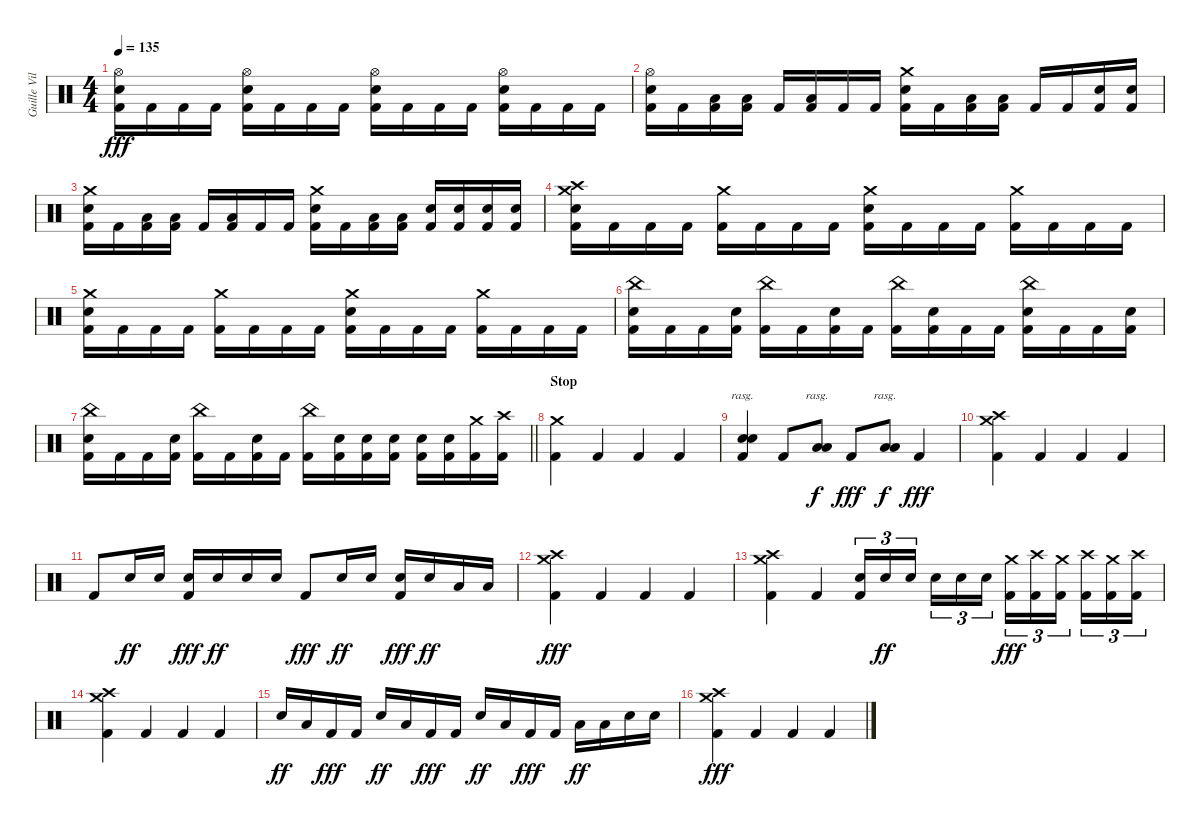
\track ("Guille Vila" "Guille Vil") {instrument percussion}
\staff {score}
\articulation defaults
\ts (4 4)
\tempo 135
\clef neutral
\ks c
("Hi-Hat (open)" "Snare (hit) 2" "Kick (hit) 2").16{dy fff} "Kick (hit) 2".16 "Kick (hit) 2".16 "Kick (hit) 2".16 ("Hi-Hat (open)" "Snare (hit) 2" "Kick (hit) 2").16 "Kick (hit) 2".16 "Kick (hit) 2".16 "Kick (hit) 2".16 ("Hi-Hat (open)" "Snare (hit) 2" "Kick (hit) 2").16 "Kick (hit) 2".16 "Kick (hit) 2".16 "Kick (hit) 2".16 ("Hi-Hat (open)" "Snare (hit) 2" "Kick (hit) 2").16 "Kick (hit) 2".16 "Kick (hit) 2".16 "Kick (hit) 2".16 |
("Hi-Hat (open)" "Snare (hit) 2" "Kick (hit) 2").16 "Kick (hit) 2".16 ("Low Tom (hit)" "Kick (hit) 2").16 ("Low Tom (hit)" "Kick (hit) 2").16 "Kick (hit) 2".16 ("Low Tom (hit)" "Kick (hit) 2").16 "Kick (hit) 2".16 "Kick (hit) 2".16 ("Crash medium (hit)" "Snare (hit) 2" "Kick (hit) 2").16 "Kick (hit) 2".16 ("Low Floor Tom (hit)" "Kick (hit) 2").16 ("Low Tom (hit)" "Kick (hit) 2").16 "Kick (hit) 2".16 "Kick (hit) 2".16 ("Snare (hit) 2" "Kick (hit) 2").16 ("Snare (hit) 2" "Kick (hit) 2").16 |
("Crash medium (hit)" "Snare (hit) 2" "Kick (hit) 2").16 "Kick (hit) 2".16 ("Low Tom (hit)" "Kick (hit) 2").16 ("Low Tom (hit)" "Kick (hit) 2").16 "Kick (hit) 2".16 ("Low Tom (hit)" "Kick (hit) 2").16 "Kick (hit) 2".16 "Kick (hit) 2".16 ("Crash medium (hit)" "Snare (hit) 2" "Kick (hit) 2").16 "Kick (hit) 2".16 ("Low Floor Tom (hit)" "Kick (hit) 2").16 ("Low Tom (hit)" "Kick (hit) 2").16 ("Snare (hit) 2" "Kick (hit) 2").16 ("Snare (hit) 2" "Kick (hit) 2").16 ("Snare (hit) 2" "Kick (hit) 2").16 ("Snare (hit) 2" "Kick (hit) 2").16 |
("Crash medium (hit)" "Crash high (hit)" "Snare (hit) 2" "Kick (hit) 2").16 "Kick (hit) 2".16 "Kick (hit) 2".16 "Kick (hit) 2".16 ("Crash medium (hit)" "Kick (hit) 2").16 "Kick (hit) 2".16 "Kick (hit) 2".16 "Kick (hit) 2".16 ("Crash medium (hit)" "Snare (hit) 2" "Kick (hit) 2").16 "Kick (hit) 2".16 "Kick (hit) 2".16 "Kick (hit) 2".16 ("Crash medium (hit)" "Kick (hit) 2").16 "Kick (hit) 2".16 "Kick (hit) 2".16 "Kick (hit) 2".16 |
("Crash medium (hit)" "Snare (hit) 2" "Kick (hit) 2").16 "Kick (hit) 2".16 "Kick (hit) 2".16 "Kick (hit) 2".16 ("Crash medium (hit)" "Kick (hit) 2").16 "Kick (hit) 2".16 "Kick (hit) 2".16 "Kick (hit) 2".16 ("Crash medium (hit)" "Snare (hit) 2" "Kick (hit) 2").16 "Kick (hit) 2".16 "Kick (hit) 2".16 "Kick (hit) 2".16 ("Crash medium (hit)" "Kick (hit) 2").16 "Kick (hit) 2".16 "Kick (hit) 2".16 "Kick (hit) 2".16 |
("China (hit)" "Snare (hit) 2" "Kick (hit) 2").16 "Kick (hit) 2".16 "Kick (hit) 2".16 ("Snare (hit) 2" "Kick (hit) 2").16 ("China (hit)" "Kick (hit) 2").16 "Kick (hit) 2".16 ("Snare (hit) 2" "Kick (hit) 2").16 "Kick (hit) 2".16 ("China (hit)" "Kick (hit) 2").16 ("Snare (hit) 2" "Kick (hit) 2").16 "Kick (hit) 2".16 "Kick (hit) 2".16 ("China (hit)" "Snare (hit) 2" "Kick (hit) 2").16 "Kick (hit) 2".16 "Kick (hit) 2".16 ("Snare (hit) 2" "Kick (hit) 2").16 |
\barLineRight lightlight
("China (hit)" "Snare (hit) 2" "Kick (hit) 2").16 "Kick (hit) 2".16 "Kick (hit) 2".16 ("Snare (hit) 2" "Kick (hit) 2").16 ("China (hit)" "Kick (hit) 2").16 "Kick (hit) 2".16 ("Snare (hit) 2" "Kick (hit) 2").16 "Kick (hit) 2".16 ("China (hit)" "Kick (hit) 2").16 ("Snare (hit) 2" "Kick (hit) 2").16 ("Snare (hit) 2" "Kick (hit) 2").16 ("Snare (hit) 2" "Kick (hit) 2").16 ("Snare (hit) 2" "Kick (hit) 2").16 ("Snare (hit) 2" "Kick (hit) 2").16 ("Crash medium (hit)" "Kick (hit) 2").16 ("Crash high (hit)" "Kick (hit) 2").16 |
\section ("" "Stop")
("Crash medium (hit)" "Kick (hit) 2").4 "Kick (hit) 2".4 "Kick (hit) 2".4 "Kick (hit) 2".4 |
("Snare (hit) 2" "Snare (hit) 2" "Kick (hit) 2").4{bd 240 rasg ii} "Kick (hit) 2".8 ("Low Tom (hit)" "Low Tom (hit)").8{bd 240 rasg ii dy f} "Kick (hit) 2".8{dy fff} ("Low Floor Tom (hit)" "Low Floor Tom (hit)").8{bd 240 rasg ii dy f} "Kick (hit) 2".4{dy fff} |
("Crash medium (hit)" "Crash high (hit)" "Kick (hit) 2").4 "Kick (hit) 2".4 "Kick (hit) 2".4 "Kick (hit) 2".4 |
"Kick (hit) 2".8 "Snare (hit) 2".16{dy ff} "Snare (hit) 2".16 ("Snare (hit) 2" "Kick (hit) 2").16{dy fff} "Snare (hit) 2".16{dy ff} "Snare (hit) 2".16 "Snare (hit) 2".16 "Kick (hit) 2".8{dy fff} "Snare (hit) 2".16{dy ff} "Snare (hit) 2".16 ("Snare (hit) 2" "Kick (hit) 2").16{dy fff} "Snare (hit) 2".16{dy ff} "Low Tom (hit)".16 "Low Tom (hit)".16 |
("Crash medium (hit)" "Crash high (hit)" "Kick (hit) 2").4{dy fff} "Kick (hit) 2".4 "Kick (hit) 2".4 "Kick (hit) 2".4 |
("Crash medium (hit)" "Crash high (hit)" "Kick (hit) 2").4 "Kick (hit) 2".4 ("Snare (hit) 2" "Kick (hit) 2").16{tu (3 2)} "Snare (hit) 2".16{tu (3 2) dy ff} "Snare (hit) 2".16{tu (3 2) beam splitsecondary} "Snare (hit) 2".16{tu (3 2)} "Snare (hit) 2".16{tu (3 2)} "Snare (hit) 2".16{tu (3 2)} ("Crash medium (hit)" "Kick (hit) 2").16{tu (3 2) dy fff} ("Crash high (hit)" "Kick (hit) 2").16{tu (3 2)} ("Crash medium (hit)" "Kick (hit) 2").16{tu (3 2) beam splitsecondary} ("Crash high (hit)" "Kick (hit) 2").16{tu (3 2)} ("Crash medium (hit)" "Kick (hit) 2").16{tu (3 2)} ("Crash high (hit)" "Kick (hit) 2").16{tu (3 2)} |
("Crash medium (hit)" "Crash high (hit)" "Kick (hit) 2").4 "Kick (hit) 2".4 "Kick (hit) 2".4 "Kick (hit) 2".4 |
"Snare (hit) 2".16{dy ff} "Low Tom (hit)".16 "Kick (hit) 2".16{dy fff} "Kick (hit) 2".16 "Snare (hit) 2".16{dy ff} "Low Tom (hit)".16 "Kick (hit) 2".16{dy fff} "Kick (hit) 2".16 "Snare (hit) 2".16{dy ff} "Low Tom (hit)".16 "Kick (hit) 2".16{dy fff} "Kick (hit) 2".16 "Low Tom (hit)".16{dy ff} "Low Tom (hit)".16 "Snare (hit) 2".16 "Snare (hit) 2".16 |
("Crash medium (hit)" "Crash high (hit)" "Kick (hit) 2").4{dy fff} "Kick (hit) 2".4 "Kick (hit) 2".4 "Kick (hit) 2".4
